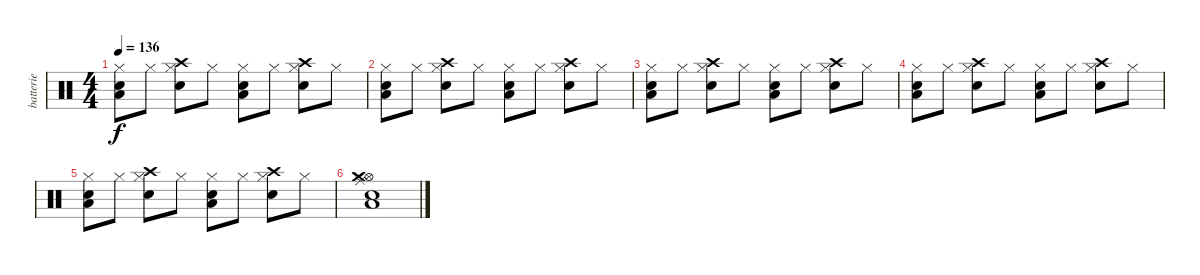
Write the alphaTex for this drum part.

\track ("batterie" "batterie") {instrument percussion}
\staff {score}
\articulation defaults
\ts (4 4)
\tempo 136
\clef neutral
\ks c
("Hi-Hat (closed)" "Snare (hit) 2" "Low Floor Tom (hit)").8{dy f} "Hi-Hat (closed)".8 ("Hi-Hat (closed)" "Crash high (hit)" "Electric Snare (hit)").8 "Hi-Hat (closed)".8 ("Hi-Hat (closed)" "Snare (hit) 2" "Low Floor Tom (hit)").8 "Hi-Hat (closed)".8 ("Hi-Hat (closed)" "Crash high (hit)" "Electric Snare (hit)").8 "Hi-Hat (closed)".8 |
("Hi-Hat (closed)" "Snare (hit) 2" "Low Floor Tom (hit)").8 "Hi-Hat (closed)".8 ("Hi-Hat (closed)" "Crash high (hit)" "Electric Snare (hit)").8 "Hi-Hat (closed)".8 ("Hi-Hat (closed)" "Snare (hit) 2" "Low Floor Tom (hit)").8 "Hi-Hat (closed)".8 ("Hi-Hat (closed)" "Crash high (hit)" "Electric Snare (hit)").8 "Hi-Hat (closed)".8 |
("Hi-Hat (closed)" "Snare (hit) 2" "Low Floor Tom (hit)").8 "Hi-Hat (closed)".8 ("Hi-Hat (closed)" "Crash high (hit)" "Electric Snare (hit)").8 "Hi-Hat (closed)".8 ("Hi-Hat (closed)" "Snare (hit) 2" "Low Floor Tom (hit)").8 "Hi-Hat (closed)".8 ("Hi-Hat (closed)" "Crash high (hit)" "Electric Snare (hit)").8 "Hi-Hat (closed)".8 |
("Hi-Hat (closed)" "Snare (hit) 2" "Low Floor Tom (hit)").8 "Hi-Hat (closed)".8 ("Hi-Hat (closed)" "Crash high (hit)" "Electric Snare (hit)").8 "Hi-Hat (closed)".8 ("Hi-Hat (closed)" "Snare (hit) 2" "Low Floor Tom (hit)").8 "Hi-Hat (closed)".8 ("Hi-Hat (closed)" "Crash high (hit)" "Electric Snare (hit)").8 "Hi-Hat (closed)".8 |
("Hi-Hat (closed)" "Snare (hit) 2" "Low Floor Tom (hit)").8 "Hi-Hat (closed)".8 ("Hi-Hat (closed)" "Crash high (hit)" "Electric Snare (hit)").8 "Hi-Hat (closed)".8 ("Hi-Hat (closed)" "Snare (hit) 2" "Low Floor Tom (hit)").8 "Hi-Hat (closed)".8 ("Hi-Hat (closed)" "Crash high (hit)" "Electric Snare (hit)").8 "Hi-Hat (closed)".8 |
("Hi-Hat (open)" "Electric Snare (hit)" "Ride (middle)" "Crash medium (hit)" "Low Floor Tom (hit)").1
